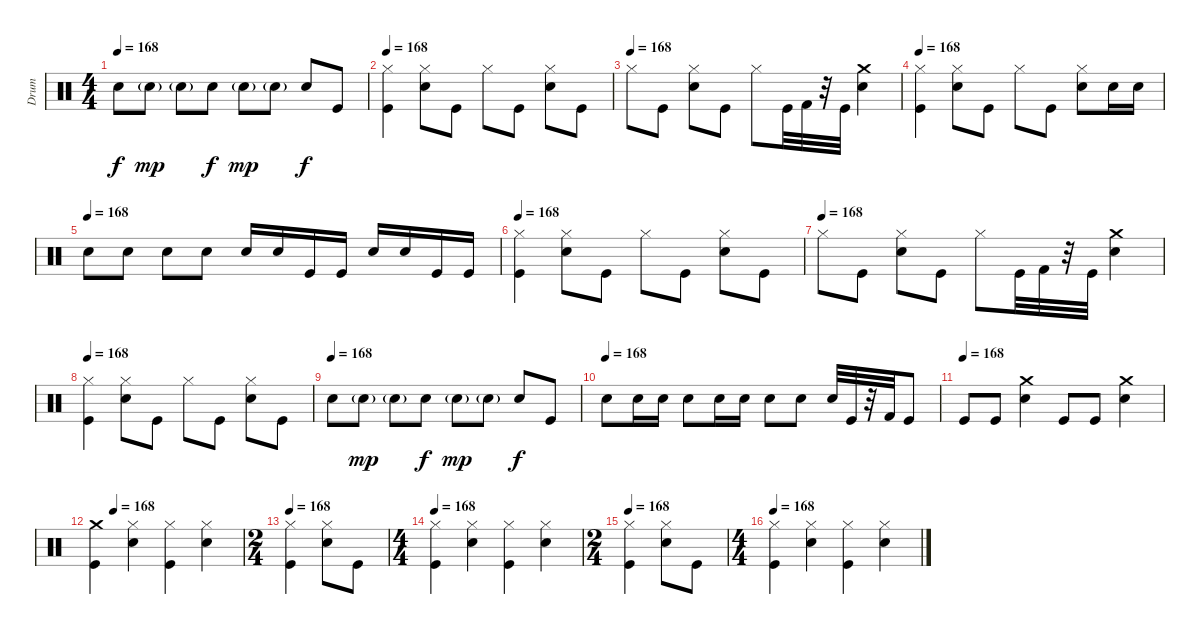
\track ("Drum" "Drum") {instrument percussion}
\staff {score}
\articulation defaults
\ts (4 4)
\tempo 168
\clef neutral
\ks c "Snare (hit) 2".8{dy f} "Snare (hit) 2"{g}.8{dy mp} "Snare (hit) 2"{g}.8 "Snare (hit) 2".8{dy f} "Snare (hit) 2"{g}.8{dy mp} "Snare (hit) 2"{g}.8 "Snare (hit) 2".8{dy f} "Kick (hit)".8
|
\tempo 168
("Hi-Hat (closed)" "Kick (hit)").4 ("Hi-Hat (closed)" "Snare (hit) 2").8 "Kick (hit)".8 "Hi-Hat (closed)".8 "Kick (hit)".8 ("Hi-Hat (closed)" "Snare (hit) 2").8 "Kick (hit)".8 |
\tempo (168)
"Hi-Hat (closed)".8 "Kick (hit)".8 ("Hi-Hat (closed)" "Snare (hit) 2").8 "Kick (hit)".8 "Hi-Hat (closed)".8 "Kick (hit)".32 "Kick (hit) 2".32 r.32 "Kick (hit)".32 ("Crash medium (hit)" "Snare (hit) 2").4 |
\tempo 168
("Hi-Hat (closed)" "Kick (hit)").4 ("Hi-Hat (closed)" "Snare (hit) 2").8 "Kick (hit)".8 "Hi-Hat (closed)".8 "Kick (hit)".8 ("Hi-Hat (closed)" "Snare (hit) 2").8 "Snare (hit) 2".16 "Snare (hit) 2".16 |
\tempo (168)
"Snare (hit) 2".8 "Snare (hit) 2".8 "Snare (hit) 2".8 "Snare (hit) 2".8 "Snare (hit) 2".16 "Snare (hit) 2".16 "Kick (hit)".16 "Kick (hit)".16 "Snare (hit) 2".16 "Snare (hit) 2".16 "Kick (hit)".16 "Kick (hit)".16 |
\tempo 168
("Hi-Hat (closed)" "Kick (hit)").4 ("Hi-Hat (closed)" "Snare (hit) 2").8 "Kick (hit)".8 "Hi-Hat (closed)".8 "Kick (hit)".8 ("Hi-Hat (closed)" "Snare (hit) 2").8 "Kick (hit)".8 |
\tempo (168)
"Hi-Hat (closed)".8 "Kick (hit)".8 ("Hi-Hat (closed)" "Snare (hit) 2").8 "Kick (hit)".8 "Hi-Hat (closed)".8 "Kick (hit)".32 "Kick (hit) 2".32 r.32 "Kick (hit)".32 ("Crash medium (hit)" "Snare (hit) 2").4 |
\tempo 168
("Hi-Hat (closed)" "Kick (hit)").4 ("Hi-Hat (closed)" "Snare (hit) 2").8 "Kick (hit)".8 "Hi-Hat (closed)".8 "Kick (hit)".8 ("Hi-Hat (closed)" "Snare (hit) 2").8 "Kick (hit)".8 |
\tempo (168)
"Snare (hit) 2".8 "Snare (hit) 2"{g}.8{dy mp} "Snare (hit) 2"{g}.8 "Snare (hit) 2".8{dy f} "Snare (hit) 2"{g}.8{dy mp} "Snare (hit) 2"{g}.8 "Snare (hit) 2".8{dy f} "Kick (hit)".8 |
\tempo (168)
"Snare (hit) 2".8 "Snare (hit) 2".16 "Snare (hit) 2".16 "Snare (hit) 2".8 "Snare (hit) 2".16 "Snare (hit) 2".16 "Snare (hit) 2".8 "Snare (hit) 2".8 "Snare (hit) 2".32 "Kick (hit)".32 r.32 "Kick (hit) 2".32 "Kick (hit)".8 |
\tempo (168)
"Kick (hit)".8 "Kick (hit)".8 ("Crash medium (hit)" "Snare (hit) 2").4 "Kick (hit)".8 "Kick (hit)".8 ("Crash medium (hit)" "Snare (hit) 2").4 |
\tempo (168 0.125)
("Crash medium (hit)" "Kick (hit)").4 ("Hi-Hat (closed)" "Snare (hit) 2").4 ("Hi-Hat (closed)" "Kick (hit)").4 ("Hi-Hat (closed)" "Snare (hit) 2").4 |
\ts (2 4)
\tempo 168
("Hi-Hat (closed)" "Kick (hit)").4 ("Hi-Hat (closed)" "Snare (hit) 2").8 "Kick (hit)".8 |
\ts (4 4)
\tempo 168
("Hi-Hat (closed)" "Kick (hit)").4 ("Hi-Hat (closed)" "Snare (hit) 2").4 ("Hi-Hat (closed)" "Kick (hit)").4 ("Hi-Hat (closed)" "Snare (hit) 2").4 |
\ts (2 4)
\tempo 168
("Hi-Hat (closed)" "Kick (hit)").4 ("Hi-Hat (closed)" "Snare (hit) 2").8 "Kick (hit)".8 |
\ts (4 4)
\tempo 168
("Hi-Hat (closed)" "Kick (hit)").4 ("Hi-Hat (closed)" "Snare (hit) 2").4 ("Hi-Hat (closed)" "Kick (hit)").4 ("Hi-Hat (closed)" "Snare (hit) 2").4
